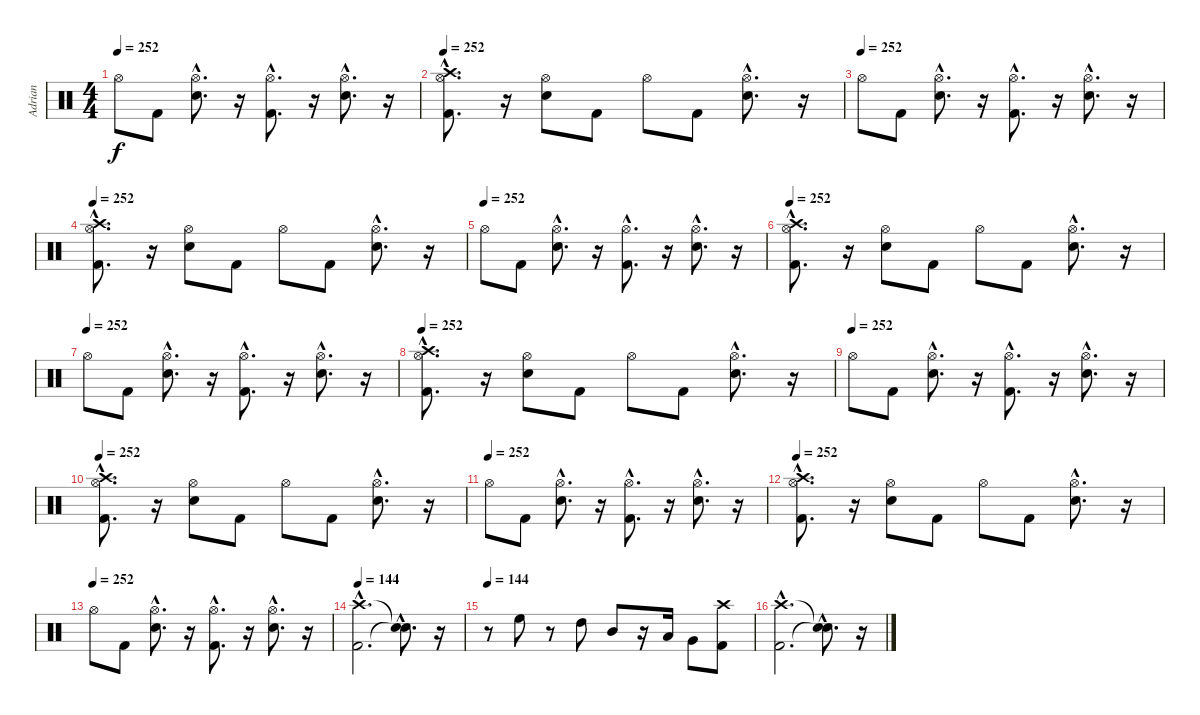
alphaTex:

\track ("Adrian" "Adrian") {instrument percussion}
\staff {score}
\articulation defaults
\ts (4 4)
\tempo 252
\clef neutral
\ks c "Hi-Hat (open)".8{dy f} "Kick (hit) 2".8
("Snare (hit) 2"{hac} "Hi-Hat (open)"{hac}).8{d} r.16 ("Kick (hit) 2"{hac} "Hi-Hat (open)"{hac}).8{d} r.16 ("Snare (hit) 2"{hac} "Hi-Hat (open)"{hac}).8{d} r.16 |
\tempo 252
("Kick (hit) 2"{hac} "Hi-Hat (open)"{hac} "Crash high (hit)"{hac}).8{d} r.16 ("Snare (hit) 2" "Hi-Hat (open)").8 "Kick (hit) 2".8 "Hi-Hat (open)".8 "Kick (hit) 2".8 ("Snare (hit) 2"{hac} "Hi-Hat (open)"{hac}).8{d} r.16 |
\tempo (252)
"Hi-Hat (open)".8 "Kick (hit) 2".8 ("Snare (hit) 2"{hac} "Hi-Hat (open)"{hac}).8{d} r.16 ("Kick (hit) 2"{hac} "Hi-Hat (open)"{hac}).8{d} r.16 ("Snare (hit) 2"{hac} "Hi-Hat (open)"{hac}).8{d} r.16 |
\tempo 252
("Kick (hit) 2"{hac} "Hi-Hat (open)"{hac} "Crash high (hit)"{hac}).8{d} r.16 ("Snare (hit) 2" "Hi-Hat (open)").8 "Kick (hit) 2".8 "Hi-Hat (open)".8 "Kick (hit) 2".8 ("Snare (hit) 2"{hac} "Hi-Hat (open)"{hac}).8{d} r.16 |
\tempo (252)
"Hi-Hat (open)".8 "Kick (hit) 2".8 ("Snare (hit) 2"{hac} "Hi-Hat (open)"{hac}).8{d} r.16 ("Kick (hit) 2"{hac} "Hi-Hat (open)"{hac}).8{d} r.16 ("Snare (hit) 2"{hac} "Hi-Hat (open)"{hac}).8{d} r.16 |
\tempo 252
("Kick (hit) 2"{hac} "Hi-Hat (open)"{hac} "Crash high (hit)"{hac}).8{d} r.16 ("Snare (hit) 2" "Hi-Hat (open)").8 "Kick (hit) 2".8 "Hi-Hat (open)".8 "Kick (hit) 2".8 ("Snare (hit) 2"{hac} "Hi-Hat (open)"{hac}).8{d} r.16 |
\tempo (252)
"Hi-Hat (open)".8 "Kick (hit) 2".8 ("Snare (hit) 2"{hac} "Hi-Hat (open)"{hac}).8{d} r.16 ("Kick (hit) 2"{hac} "Hi-Hat (open)"{hac}).8{d} r.16 ("Snare (hit) 2"{hac} "Hi-Hat (open)"{hac}).8{d} r.16 |
\tempo 252
("Kick (hit) 2"{hac} "Hi-Hat (open)"{hac} "Crash high (hit)"{hac}).8{d} r.16 ("Snare (hit) 2" "Hi-Hat (open)").8 "Kick (hit) 2".8 "Hi-Hat (open)".8 "Kick (hit) 2".8 ("Snare (hit) 2"{hac} "Hi-Hat (open)"{hac}).8{d} r.16 |
\tempo (252)
"Hi-Hat (open)".8 "Kick (hit) 2".8 ("Snare (hit) 2"{hac} "Hi-Hat (open)"{hac}).8{d} r.16 ("Kick (hit) 2"{hac} "Hi-Hat (open)"{hac}).8{d} r.16 ("Snare (hit) 2"{hac} "Hi-Hat (open)"{hac}).8{d} r.16 |
\tempo 252
("Kick (hit) 2"{hac} "Hi-Hat (open)"{hac} "Crash high (hit)"{hac}).8{d} r.16 ("Snare (hit) 2" "Hi-Hat (open)").8 "Kick (hit) 2".8 "Hi-Hat (open)".8 "Kick (hit) 2".8 ("Snare (hit) 2"{hac} "Hi-Hat (open)"{hac}).8{d} r.16 |
\tempo (252)
"Hi-Hat (open)".8 "Kick (hit) 2".8 ("Snare (hit) 2"{hac} "Hi-Hat (open)"{hac}).8{d} r.16 ("Kick (hit) 2"{hac} "Hi-Hat (open)"{hac}).8{d} r.16 ("Snare (hit) 2"{hac} "Hi-Hat (open)"{hac}).8{d} r.16 |
\tempo 252
("Kick (hit) 2"{hac} "Hi-Hat (open)"{hac} "Crash high (hit)"{hac}).8{d} r.16 ("Snare (hit) 2" "Hi-Hat (open)").8 "Kick (hit) 2".8 "Hi-Hat (open)".8 "Kick (hit) 2".8 ("Snare (hit) 2"{hac} "Hi-Hat (open)"{hac}).8{d} r.16 |
\tempo (252)
"Hi-Hat (open)".8 "Kick (hit) 2".8 ("Snare (hit) 2"{hac} "Hi-Hat (open)"{hac}).8{d} r.16 ("Kick (hit) 2"{hac} "Hi-Hat (open)"{hac}).8{d} r.16 ("Snare (hit) 2"{hac} "Hi-Hat (open)"{hac}).8{d} r.16 |
\tempo 144
("Kick (hit) 2"{hac} "Crash high (hit)"{hac}).2{d} ("Snare (hit)"{hac t} "Snare (hit)"{hac t}).8{d} r.16 |
\tempo 144
r.8 "High Floor Tom (hit)".8 r.8 "High Tom (hit)".8 "Mid Tom (hit)".8 r.16 "Low Tom (hit)".16 "Very Low Tom (hit)".8 ("Kick (hit) 2" "Crash high (hit)").8 |
("Kick (hit) 2"{hac} "Crash high (hit)"{hac}).2{d} ("Snare (hit)"{hac t} "Snare (hit)"{hac t}).8{d} r.16
